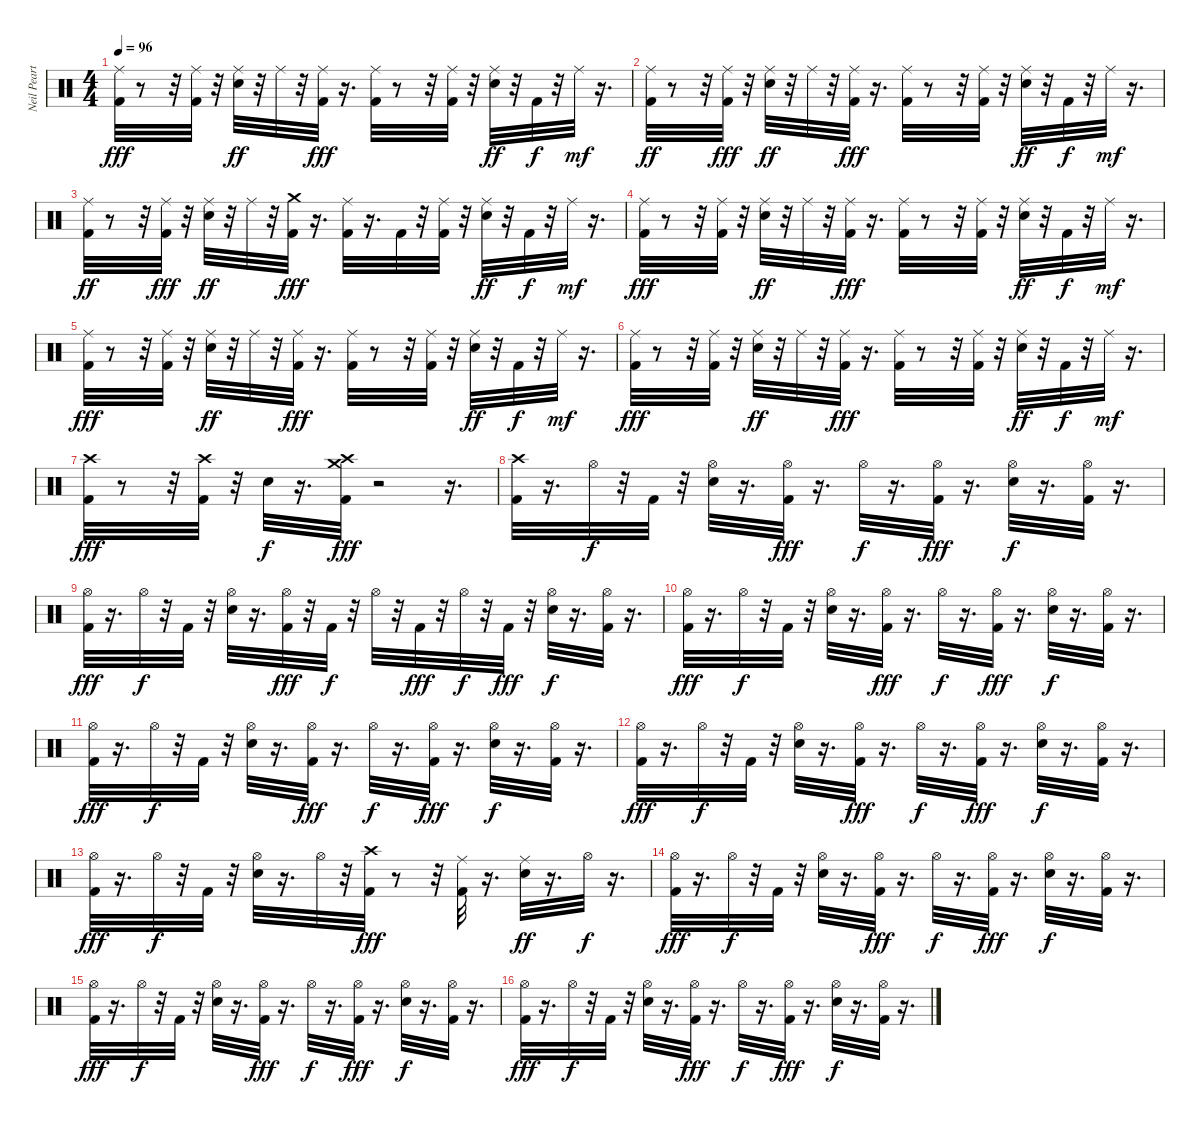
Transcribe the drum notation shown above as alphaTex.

\track ("Neil Peart" "Neil Peart") {instrument percussion}
\staff {score}
\articulation defaults
\ts (4 4)
\tempo 96
\clef neutral
\ks c
("Ride (middle)" "Kick (hit) 2").32{dy fff} r.8 r.32 ("Ride (middle)" "Kick (hit) 2").32 r.32 ("Ride (middle)" "Snare (hit) 2").32{dy ff} r.32 "Ride (middle)".32 r.32 ("Ride (middle)" "Kick (hit) 2").32{dy fff} r.16{d} ("Ride (middle)" "Kick (hit) 2").32 r.8 r.32 ("Ride (middle)" "Kick (hit) 2").32 r.32 ("Ride (middle)" "Snare (hit) 2").32{dy ff} r.32 "Kick (hit) 2".32{dy f} r.32 "Ride (middle)".32{dy mf} r.16{d} |
("Kick (hit) 2" "Ride (middle)").32{dy ff} r.8 r.32 ("Kick (hit) 2" "Ride (middle)").32{dy fff} r.32 ("Snare (hit) 2" "Ride (middle)").32{dy ff} r.32 "Ride (middle)".32 r.32 ("Kick (hit) 2" "Ride (middle)").32{dy fff} r.16{d} ("Kick (hit) 2" "Ride (middle)").32 r.8 r.32 ("Kick (hit) 2" "Ride (middle)").32 r.32 ("Snare (hit) 2" "Ride (middle)").32{dy ff} r.32 "Kick (hit) 2".32{dy f} r.32 "Ride (middle)".32{dy mf} r.16{d} |
("Kick (hit) 2" "Ride (middle)").32{dy ff} r.8 r.32 ("Kick (hit) 2" "Ride (middle)").32{dy fff} r.32 ("Snare (hit) 2" "Ride (middle)").32{dy ff} r.32 "Ride (middle)".32 r.32 ("Crash medium (hit)" "Kick (hit) 2").32{dy fff} r.16{d} ("Kick (hit) 2" "Ride (middle)").32 r.16{d} "Kick (hit) 2".32 r.32 ("Kick (hit) 2" "Ride (middle)").32 r.32 ("Snare (hit) 2" "Ride (middle)").32{dy ff} r.32 "Kick (hit) 2".32{dy f} r.32 "Ride (middle)".32{dy mf} r.16{d} |
("Ride (middle)" "Kick (hit) 2").32{dy fff} r.8 r.32 ("Ride (middle)" "Kick (hit) 2").32 r.32 ("Ride (middle)" "Snare (hit) 2").32{dy ff} r.32 "Ride (middle)".32 r.32 ("Ride (middle)" "Kick (hit) 2").32{dy fff} r.16{d} ("Ride (middle)" "Kick (hit) 2").32 r.8 r.32 ("Ride (middle)" "Kick (hit) 2").32 r.32 ("Ride (middle)" "Snare (hit) 2").32{dy ff} r.32 "Kick (hit) 2".32{dy f} r.32 "Ride (middle)".32{dy mf} r.16{d} |
("Ride (middle)" "Kick (hit) 2").32{dy fff} r.8 r.32 ("Ride (middle)" "Kick (hit) 2").32 r.32 ("Ride (middle)" "Snare (hit) 2").32{dy ff} r.32 "Ride (middle)".32 r.32 ("Ride (middle)" "Kick (hit) 2").32{dy fff} r.16{d} ("Ride (middle)" "Kick (hit) 2").32 r.8 r.32 ("Ride (middle)" "Kick (hit) 2").32 r.32 ("Ride (middle)" "Snare (hit) 2").32{dy ff} r.32 "Kick (hit) 2".32{dy f} r.32 "Ride (middle)".32{dy mf} r.16{d} |
("Ride (middle)" "Kick (hit) 2").32{dy fff} r.8 r.32 ("Ride (middle)" "Kick (hit) 2").32 r.32 ("Ride (middle)" "Snare (hit) 2").32{dy ff} r.32 "Ride (middle)".32 r.32 ("Ride (middle)" "Kick (hit) 2").32{dy fff} r.16{d} ("Ride (middle)" "Kick (hit) 2").32 r.8 r.32 ("Ride (middle)" "Kick (hit) 2").32 r.32 ("Ride (middle)" "Snare (hit) 2").32{dy ff} r.32 "Kick (hit) 2".32{dy f} r.32 "Ride (middle)".32{dy mf} r.16{d} |
("Crash high (hit)" "Kick (hit) 2").32{dy fff} r.8 r.32 ("Crash high (hit)" "Kick (hit) 2").32 r.32 "Snare (hit) 2".32{dy f} r.16{d} ("Crash medium (hit)" "Crash high (hit)" "Kick (hit) 2").32{dy fff} r.2 r.16{d} |
("Crash high (hit)" "Kick (hit) 2").32 r.16{d} "Hi-Hat (open)".32{dy f} r.32 "Kick (hit) 2".32 r.32 ("Hi-Hat (open)" "Snare (hit) 2").32 r.16{d} ("Hi-Hat (open)" "Kick (hit) 2").32{dy fff} r.16{d} "Hi-Hat (open)".32{dy f} r.16{d} ("Hi-Hat (open)" "Kick (hit) 2").32{dy fff} r.16{d} ("Hi-Hat (open)" "Snare (hit) 2").32{dy f} r.16{d} ("Hi-Hat (open)" "Kick (hit) 2").32 r.16{d} |
("Hi-Hat (open)" "Kick (hit) 2").32{dy fff} r.16{d} "Hi-Hat (open)".32{dy f} r.32 "Kick (hit) 2".32 r.32 ("Hi-Hat (open)" "Snare (hit) 2").32 r.16{d} ("Hi-Hat (open)" "Kick (hit) 2").32{dy fff} r.32 "Kick (hit) 2".32{dy f} r.32 "Hi-Hat (open)".32 r.32 "Kick (hit) 2".32{dy fff} r.32 "Hi-Hat (open)".32{dy f} r.32 "Kick (hit) 2".32{dy fff} r.32 ("Hi-Hat (open)" "Snare (hit) 2").32{dy f} r.16{d} ("Hi-Hat (open)" "Kick (hit) 2").32 r.16{d} |
("Hi-Hat (open)" "Kick (hit) 2").32{dy fff} r.16{d} "Hi-Hat (open)".32{dy f} r.32 "Kick (hit) 2".32 r.32 ("Hi-Hat (open)" "Snare (hit) 2").32 r.16{d} ("Hi-Hat (open)" "Kick (hit) 2").32{dy fff} r.16{d} "Hi-Hat (open)".32{dy f} r.16{d} ("Hi-Hat (open)" "Kick (hit) 2").32{dy fff} r.16{d} ("Hi-Hat (open)" "Snare (hit) 2").32{dy f} r.16{d} ("Hi-Hat (open)" "Kick (hit) 2").32 r.16{d} |
("Hi-Hat (open)" "Kick (hit) 2").32{dy fff} r.16{d} "Hi-Hat (open)".32{dy f} r.32 "Kick (hit) 2".32 r.32 ("Hi-Hat (open)" "Snare (hit) 2").32 r.16{d} ("Hi-Hat (open)" "Kick (hit) 2").32{dy fff} r.16{d} "Hi-Hat (open)".32{dy f} r.16{d} ("Hi-Hat (open)" "Kick (hit) 2").32{dy fff} r.16{d} ("Hi-Hat (open)" "Snare (hit) 2").32{dy f} r.16{d} ("Hi-Hat (open)" "Kick (hit) 2").32 r.16{d} |
("Hi-Hat (open)" "Kick (hit) 2").32{dy fff} r.16{d} "Hi-Hat (open)".32{dy f} r.32 "Kick (hit) 2".32 r.32 ("Hi-Hat (open)" "Snare (hit) 2").32 r.16{d} ("Hi-Hat (open)" "Kick (hit) 2").32{dy fff} r.16{d} "Hi-Hat (open)".32{dy f} r.16{d} ("Hi-Hat (open)" "Kick (hit) 2").32{dy fff} r.16{d} ("Hi-Hat (open)" "Snare (hit) 2").32{dy f} r.16{d} ("Hi-Hat (open)" "Kick (hit) 2").32 r.16{d} |
("Hi-Hat (open)" "Kick (hit) 2").32{dy fff} r.16{d} "Hi-Hat (open)".32{dy f} r.32 "Kick (hit) 2".32 r.32 ("Hi-Hat (open)" "Snare (hit) 2").32 r.16{d} "Hi-Hat (open)".32 r.32 ("Crash high (hit)" "Kick (hit) 2").32{dy fff} r.8 r.32 ("Ride (middle)" "Kick (hit) 2").32 r.16{d} ("Ride (middle)" "Snare (hit) 2").32{dy ff} r.16{d} "Hi-Hat (open)".32{dy f} r.16{d} |
("Hi-Hat (open)" "Kick (hit) 2").32{dy fff} r.16{d} "Hi-Hat (open)".32{dy f} r.32 "Kick (hit) 2".32 r.32 ("Hi-Hat (open)" "Snare (hit) 2").32 r.16{d} ("Hi-Hat (open)" "Kick (hit) 2").32{dy fff} r.16{d} "Hi-Hat (open)".32{dy f} r.16{d} ("Hi-Hat (open)" "Kick (hit) 2").32{dy fff} r.16{d} ("Hi-Hat (open)" "Snare (hit) 2").32{dy f} r.16{d} ("Hi-Hat (open)" "Kick (hit) 2").32 r.16{d} |
("Hi-Hat (open)" "Kick (hit) 2").32{dy fff} r.16{d} "Hi-Hat (open)".32{dy f} r.32 "Kick (hit) 2".32 r.32 ("Hi-Hat (open)" "Snare (hit) 2").32 r.16{d} ("Hi-Hat (open)" "Kick (hit) 2").32{dy fff} r.16{d} "Hi-Hat (open)".32{dy f} r.16{d} ("Hi-Hat (open)" "Kick (hit) 2").32{dy fff} r.16{d} ("Hi-Hat (open)" "Snare (hit) 2").32{dy f} r.16{d} ("Hi-Hat (open)" "Kick (hit) 2").32 r.16{d} |
("Hi-Hat (open)" "Kick (hit) 2").32{dy fff} r.16{d} "Hi-Hat (open)".32{dy f} r.32 "Kick (hit) 2".32 r.32 ("Hi-Hat (open)" "Snare (hit) 2").32 r.16{d} ("Hi-Hat (open)" "Kick (hit) 2").32{dy fff} r.16{d} "Hi-Hat (open)".32{dy f} r.16{d} ("Hi-Hat (open)" "Kick (hit) 2").32{dy fff} r.16{d} ("Hi-Hat (open)" "Snare (hit) 2").32{dy f} r.16{d} ("Hi-Hat (open)" "Kick (hit) 2").32 r.16{d}
